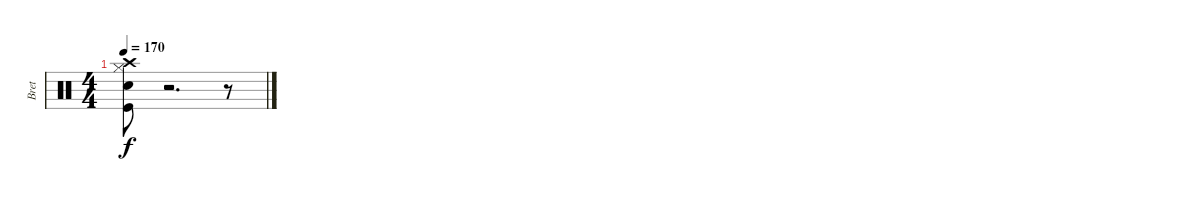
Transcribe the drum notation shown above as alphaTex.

\track ("Bret" "Bret") {instrument percussion}
\staff {score}
\articulation defaults
\ts (4 4)
\tempo 170
\clef neutral
\ks c
("Hi-Hat (closed)" "Crash high (hit)" "Electric Snare (hit)" "Kick (hit)").8{dy f} r.2{d} r.8
